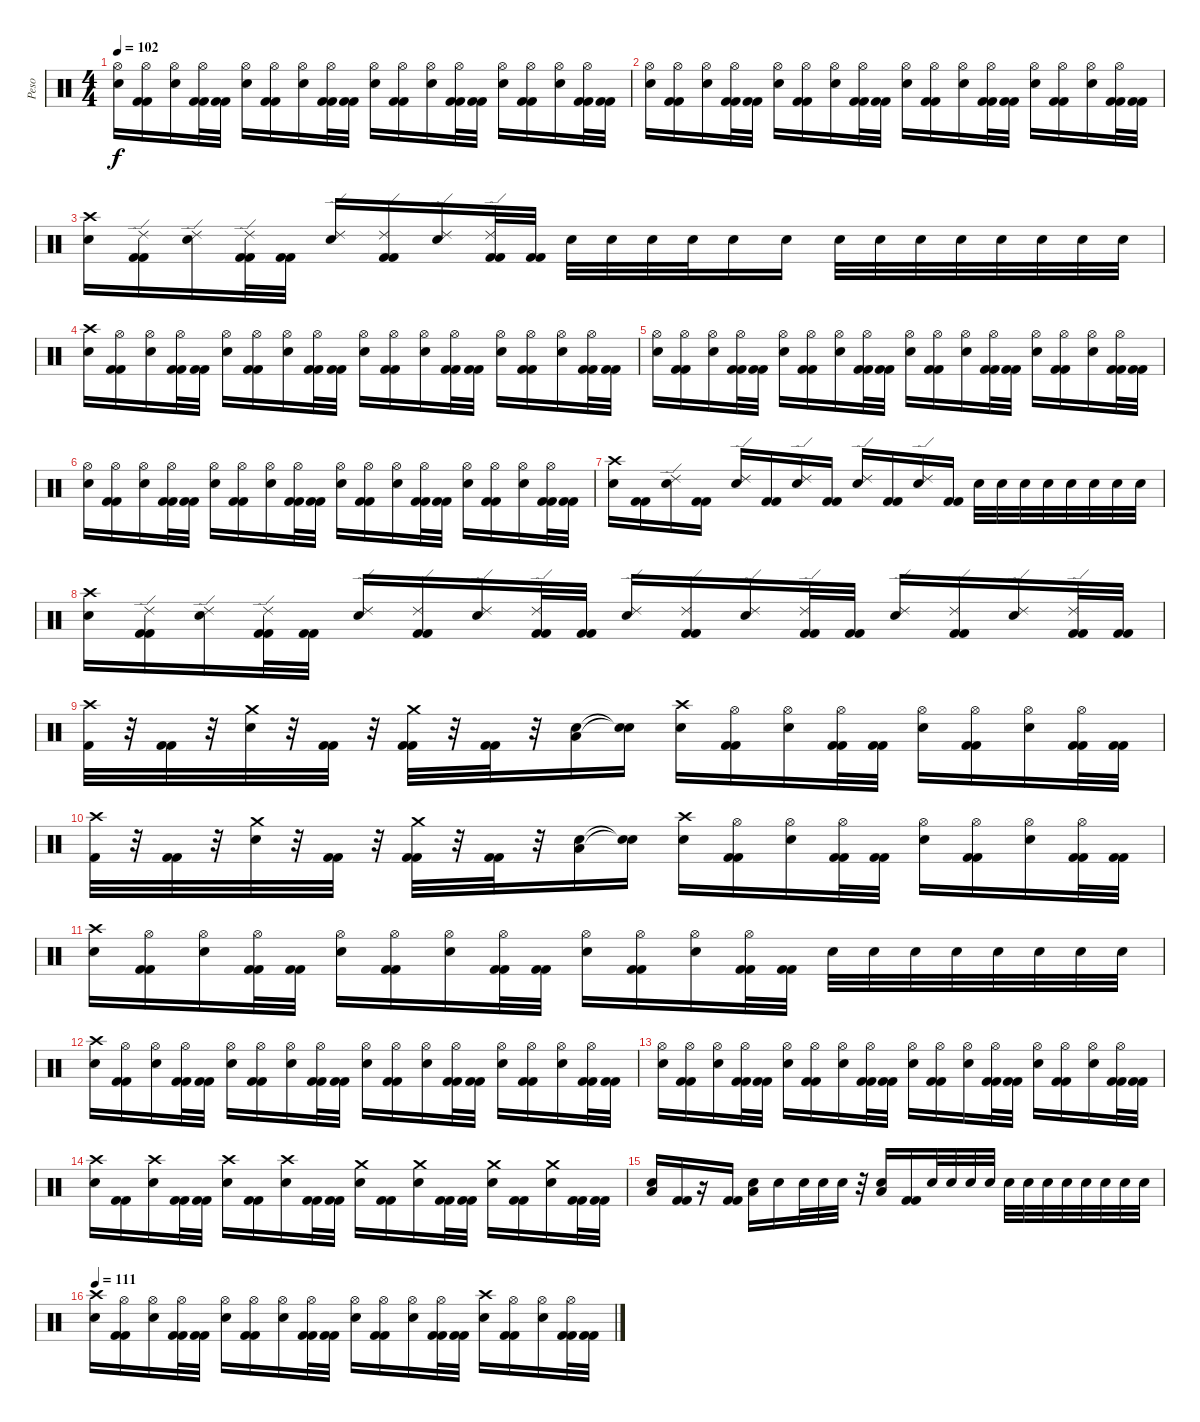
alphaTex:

\track ("Peso" "Peso") {instrument percussion}
\staff {score}
\articulation defaults
\ts (4 4)
\tempo 102
\clef neutral
\ks c
("Hi-Hat (open)" "Snare (hit) 2").16{dy f} ("Hi-Hat (open)" "Kick (hit) 2" "Kick (hit) 2").16 ("Hi-Hat (open)" "Snare (hit) 2").16 ("Hi-Hat (open)" "Kick (hit) 2" "Kick (hit) 2").32 ("Kick (hit) 2" "Kick (hit) 2").32 ("Hi-Hat (open)" "Snare (hit) 2").16 ("Hi-Hat (open)" "Kick (hit) 2" "Kick (hit) 2").16 ("Hi-Hat (open)" "Snare (hit) 2").16 ("Hi-Hat (open)" "Kick (hit) 2" "Kick (hit) 2").32 ("Kick (hit) 2" "Kick (hit) 2").32 ("Hi-Hat (open)" "Snare (hit) 2").16 ("Hi-Hat (open)" "Kick (hit) 2" "Kick (hit) 2").16 ("Hi-Hat (open)" "Snare (hit) 2").16 ("Hi-Hat (open)" "Kick (hit) 2" "Kick (hit) 2").32 ("Kick (hit) 2" "Kick (hit) 2").32 ("Hi-Hat (open)" "Snare (hit) 2").16 ("Hi-Hat (open)" "Kick (hit) 2" "Kick (hit) 2").16 ("Hi-Hat (open)" "Snare (hit) 2").16 ("Hi-Hat (open)" "Kick (hit) 2" "Kick (hit) 2").32 ("Kick (hit) 2" "Kick (hit) 2").32 |
("Hi-Hat (open)" "Snare (hit) 2").16 ("Hi-Hat (open)" "Kick (hit) 2" "Kick (hit) 2").16 ("Hi-Hat (open)" "Snare (hit) 2").16 ("Hi-Hat (open)" "Kick (hit) 2" "Kick (hit) 2").32 ("Kick (hit) 2" "Kick (hit) 2").32 ("Hi-Hat (open)" "Snare (hit) 2").16 ("Hi-Hat (open)" "Kick (hit) 2" "Kick (hit) 2").16 ("Hi-Hat (open)" "Snare (hit) 2").16 ("Hi-Hat (open)" "Kick (hit) 2" "Kick (hit) 2").32 ("Kick (hit) 2" "Kick (hit) 2").32 ("Hi-Hat (open)" "Snare (hit) 2").16 ("Hi-Hat (open)" "Kick (hit) 2" "Kick (hit) 2").16 ("Hi-Hat (open)" "Snare (hit) 2").16 ("Hi-Hat (open)" "Kick (hit) 2" "Kick (hit) 2").32 ("Kick (hit) 2" "Kick (hit) 2").32 ("Hi-Hat (open)" "Snare (hit) 2").16 ("Hi-Hat (open)" "Kick (hit) 2" "Kick (hit) 2").16 ("Hi-Hat (open)" "Snare (hit) 2").16 ("Hi-Hat (open)" "Kick (hit) 2" "Kick (hit) 2").32 ("Kick (hit) 2" "Kick (hit) 2").32 |
("Crash high (hit)" "Snare (hit) 2").16 ("Ride (edge) 2" "Kick (hit) 2" "Kick (hit) 2").16 ("Ride (edge) 2" "Snare (hit) 2").16 ("Ride (edge) 2" "Kick (hit) 2" "Kick (hit) 2").32 ("Kick (hit) 2" "Kick (hit) 2").32 ("Ride (edge) 2" "Snare (hit) 2").16 ("Ride (edge) 2" "Kick (hit) 2" "Kick (hit) 2").16 ("Ride (edge) 2" "Snare (hit) 2").16 ("Ride (edge) 2" "Kick (hit) 2" "Kick (hit) 2").32 ("Kick (hit) 2" "Kick (hit) 2").32 "Snare (hit) 2".32 "Snare (hit) 2".32 "Snare (hit) 2".32 "Snare (hit) 2".32 "Snare (hit) 2".16 "Snare (hit) 2".16 "Snare (hit) 2".32 "Snare (hit) 2".32 "Snare (hit) 2".32 "Snare (hit) 2".32 "Snare (hit) 2".32 "Snare (hit) 2".32 "Snare (hit) 2".32 "Snare (hit) 2".32 |
("Crash high (hit)" "Snare (hit) 2").16 ("Hi-Hat (open)" "Kick (hit) 2" "Kick (hit) 2").16 ("Hi-Hat (open)" "Snare (hit) 2").16 ("Hi-Hat (open)" "Kick (hit) 2" "Kick (hit) 2").32 ("Kick (hit) 2" "Kick (hit) 2").32 ("Hi-Hat (open)" "Snare (hit) 2").16 ("Hi-Hat (open)" "Kick (hit) 2" "Kick (hit) 2").16 ("Hi-Hat (open)" "Snare (hit) 2").16 ("Hi-Hat (open)" "Kick (hit) 2" "Kick (hit) 2").32 ("Kick (hit) 2" "Kick (hit) 2").32 ("Hi-Hat (open)" "Snare (hit) 2").16 ("Hi-Hat (open)" "Kick (hit) 2" "Kick (hit) 2").16 ("Hi-Hat (open)" "Snare (hit) 2").16 ("Hi-Hat (open)" "Kick (hit) 2" "Kick (hit) 2").32 ("Kick (hit) 2" "Kick (hit) 2").32 ("Hi-Hat (open)" "Snare (hit) 2").16 ("Hi-Hat (open)" "Kick (hit) 2" "Kick (hit) 2").16 ("Hi-Hat (open)" "Snare (hit) 2").16 ("Hi-Hat (open)" "Kick (hit) 2" "Kick (hit) 2").32 ("Kick (hit) 2" "Kick (hit) 2").32 |
("Hi-Hat (open)" "Snare (hit) 2").16 ("Hi-Hat (open)" "Kick (hit) 2" "Kick (hit) 2").16 ("Hi-Hat (open)" "Snare (hit) 2").16 ("Hi-Hat (open)" "Kick (hit) 2" "Kick (hit) 2").32 ("Kick (hit) 2" "Kick (hit) 2").32 ("Hi-Hat (open)" "Snare (hit) 2").16 ("Hi-Hat (open)" "Kick (hit) 2" "Kick (hit) 2").16 ("Hi-Hat (open)" "Snare (hit) 2").16 ("Hi-Hat (open)" "Kick (hit) 2" "Kick (hit) 2").32 ("Kick (hit) 2" "Kick (hit) 2").32 ("Hi-Hat (open)" "Snare (hit) 2").16 ("Hi-Hat (open)" "Kick (hit) 2" "Kick (hit) 2").16 ("Hi-Hat (open)" "Snare (hit) 2").16 ("Hi-Hat (open)" "Kick (hit) 2" "Kick (hit) 2").32 ("Kick (hit) 2" "Kick (hit) 2").32 ("Hi-Hat (open)" "Snare (hit) 2").16 ("Hi-Hat (open)" "Kick (hit) 2" "Kick (hit) 2").16 ("Hi-Hat (open)" "Snare (hit) 2").16 ("Hi-Hat (open)" "Kick (hit) 2" "Kick (hit) 2").32 ("Kick (hit) 2" "Kick (hit) 2").32 |
("Hi-Hat (open)" "Snare (hit) 2").16 ("Hi-Hat (open)" "Kick (hit) 2" "Kick (hit) 2").16 ("Hi-Hat (open)" "Snare (hit) 2").16 ("Hi-Hat (open)" "Kick (hit) 2" "Kick (hit) 2").32 ("Kick (hit) 2" "Kick (hit) 2").32 ("Hi-Hat (open)" "Snare (hit) 2").16 ("Hi-Hat (open)" "Kick (hit) 2" "Kick (hit) 2").16 ("Hi-Hat (open)" "Snare (hit) 2").16 ("Hi-Hat (open)" "Kick (hit) 2" "Kick (hit) 2").32 ("Kick (hit) 2" "Kick (hit) 2").32 ("Hi-Hat (open)" "Snare (hit) 2").16 ("Hi-Hat (open)" "Kick (hit) 2" "Kick (hit) 2").16 ("Hi-Hat (open)" "Snare (hit) 2").16 ("Hi-Hat (open)" "Kick (hit) 2" "Kick (hit) 2").32 ("Kick (hit) 2" "Kick (hit) 2").32 ("Hi-Hat (open)" "Snare (hit) 2").16 ("Hi-Hat (open)" "Kick (hit) 2" "Kick (hit) 2").16 ("Hi-Hat (open)" "Snare (hit) 2").16 ("Hi-Hat (open)" "Kick (hit) 2" "Kick (hit) 2").32 ("Kick (hit) 2" "Kick (hit) 2").32 |
("Crash high (hit)" "Snare (hit) 2").16 ("Kick (hit) 2" "Kick (hit) 2").16 ("Ride (edge) 2" "Snare (hit) 2").16 ("Kick (hit) 2" "Kick (hit) 2").16 ("Ride (edge) 2" "Snare (hit) 2").16 ("Kick (hit) 2" "Kick (hit) 2").16 ("Ride (edge) 2" "Snare (hit) 2").16 ("Kick (hit) 2" "Kick (hit) 2").16 ("Ride (edge) 2" "Snare (hit) 2").16 ("Kick (hit) 2" "Kick (hit) 2").16 ("Ride (edge) 2" "Snare (hit) 2").16 ("Kick (hit) 2" "Kick (hit) 2").16 "Snare (hit) 2".32 "Snare (hit) 2".32 "Snare (hit) 2".32 "Snare (hit) 2".32 "Snare (hit) 2".32 "Snare (hit) 2".32 "Snare (hit) 2".32 "Snare (hit) 2".32 |
("Crash high (hit)" "Snare (hit) 2").16 ("Ride (edge) 2" "Kick (hit) 2" "Kick (hit) 2").16 ("Ride (edge) 2" "Snare (hit) 2").16 ("Ride (edge) 2" "Kick (hit) 2" "Kick (hit) 2").32 ("Kick (hit) 2" "Kick (hit) 2").32 ("Ride (edge) 2" "Snare (hit) 2").16 ("Ride (edge) 2" "Kick (hit) 2" "Kick (hit) 2").16 ("Ride (edge) 2" "Snare (hit) 2").16 ("Ride (edge) 2" "Kick (hit) 2" "Kick (hit) 2").32 ("Kick (hit) 2" "Kick (hit) 2").32 ("Ride (edge) 2" "Snare (hit) 2").16 ("Ride (edge) 2" "Kick (hit) 2" "Kick (hit) 2").16 ("Ride (edge) 2" "Snare (hit) 2").16 ("Ride (edge) 2" "Kick (hit) 2" "Kick (hit) 2").32 ("Kick (hit) 2" "Kick (hit) 2").32 ("Ride (edge) 2" "Snare (hit) 2").16 ("Ride (edge) 2" "Kick (hit) 2" "Kick (hit) 2").16 ("Ride (edge) 2" "Snare (hit) 2").16 ("Ride (edge) 2" "Kick (hit) 2" "Kick (hit) 2").32 ("Kick (hit) 2" "Kick (hit) 2").32 |
("Crash high (hit)" "Kick (hit) 2").32 r.32 ("Kick (hit) 2" "Kick (hit) 2").32 r.32 ("Crash medium (hit)" "Snare (hit) 2").32 r.32 ("Kick (hit) 2" "Kick (hit) 2").32 r.32 ("Crash medium (hit)" "Kick (hit) 2" "Kick (hit) 2").32 r.32 ("Kick (hit) 2" "Kick (hit) 2").32 r.32 ("Low Floor Tom (hit)" "Snare (hit) 2").16 ("Snare (hit)"{t} "Snare (hit)"{t}).16 ("Crash high (hit)" "Snare (hit) 2").16 ("Hi-Hat (open)" "Kick (hit) 2" "Kick (hit) 2").16 ("Hi-Hat (open)" "Snare (hit) 2").16 ("Hi-Hat (open)" "Kick (hit) 2" "Kick (hit) 2").32 ("Kick (hit) 2" "Kick (hit) 2").32 ("Hi-Hat (open)" "Snare (hit) 2").16 ("Hi-Hat (open)" "Kick (hit) 2" "Kick (hit) 2").16 ("Hi-Hat (open)" "Snare (hit) 2").16 ("Hi-Hat (open)" "Kick (hit) 2" "Kick (hit) 2").32 ("Kick (hit) 2" "Kick (hit) 2").32 |
("Crash high (hit)" "Kick (hit) 2").32 r.32 ("Kick (hit) 2" "Kick (hit) 2").32 r.32 ("Crash medium (hit)" "Snare (hit) 2").32 r.32 ("Kick (hit) 2" "Kick (hit) 2").32 r.32 ("Crash medium (hit)" "Kick (hit) 2" "Kick (hit) 2").32 r.32 ("Kick (hit) 2" "Kick (hit) 2").32 r.32 ("Low Floor Tom (hit)" "Snare (hit) 2").16 ("Snare (hit)"{t} "Snare (hit)"{t}).16 ("Crash high (hit)" "Snare (hit) 2").16 ("Hi-Hat (open)" "Kick (hit) 2" "Kick (hit) 2").16 ("Hi-Hat (open)" "Snare (hit) 2").16 ("Hi-Hat (open)" "Kick (hit) 2" "Kick (hit) 2").32 ("Kick (hit) 2" "Kick (hit) 2").32 ("Hi-Hat (open)" "Snare (hit) 2").16 ("Hi-Hat (open)" "Kick (hit) 2" "Kick (hit) 2").16 ("Hi-Hat (open)" "Snare (hit) 2").16 ("Hi-Hat (open)" "Kick (hit) 2" "Kick (hit) 2").32 ("Kick (hit) 2" "Kick (hit) 2").32 |
("Crash high (hit)" "Snare (hit) 2").16 ("Hi-Hat (open)" "Kick (hit) 2" "Kick (hit) 2").16 ("Hi-Hat (open)" "Snare (hit) 2").16 ("Hi-Hat (open)" "Kick (hit) 2" "Kick (hit) 2").32 ("Kick (hit) 2" "Kick (hit) 2").32 ("Hi-Hat (open)" "Snare (hit) 2").16 ("Hi-Hat (open)" "Kick (hit) 2" "Kick (hit) 2").16 ("Hi-Hat (open)" "Snare (hit) 2").16 ("Hi-Hat (open)" "Kick (hit) 2" "Kick (hit) 2").32 ("Kick (hit) 2" "Kick (hit) 2").32 ("Hi-Hat (open)" "Snare (hit) 2").16 ("Hi-Hat (open)" "Kick (hit) 2" "Kick (hit) 2").16 ("Hi-Hat (open)" "Snare (hit) 2").16 ("Hi-Hat (open)" "Kick (hit) 2" "Kick (hit) 2").32 ("Kick (hit) 2" "Kick (hit) 2").32 "Snare (hit) 2".32 "Snare (hit) 2".32 "Snare (hit) 2".32 "Snare (hit) 2".32 "Snare (hit) 2".32 "Snare (hit) 2".32 "Snare (hit) 2".32 "Snare (hit) 2".32 |
("Crash high (hit)" "Snare (hit) 2").16 ("Hi-Hat (open)" "Kick (hit) 2" "Kick (hit) 2").16 ("Hi-Hat (open)" "Snare (hit) 2").16 ("Hi-Hat (open)" "Kick (hit) 2" "Kick (hit) 2").32 ("Kick (hit) 2" "Kick (hit) 2").32 ("Hi-Hat (open)" "Snare (hit) 2").16 ("Hi-Hat (open)" "Kick (hit) 2" "Kick (hit) 2").16 ("Hi-Hat (open)" "Snare (hit) 2").16 ("Hi-Hat (open)" "Kick (hit) 2" "Kick (hit) 2").32 ("Kick (hit) 2" "Kick (hit) 2").32 ("Hi-Hat (open)" "Snare (hit) 2").16 ("Hi-Hat (open)" "Kick (hit) 2" "Kick (hit) 2").16 ("Hi-Hat (open)" "Snare (hit) 2").16 ("Hi-Hat (open)" "Kick (hit) 2" "Kick (hit) 2").32 ("Kick (hit) 2" "Kick (hit) 2").32 ("Hi-Hat (open)" "Snare (hit) 2").16 ("Hi-Hat (open)" "Kick (hit) 2" "Kick (hit) 2").16 ("Hi-Hat (open)" "Snare (hit) 2").16 ("Hi-Hat (open)" "Kick (hit) 2" "Kick (hit) 2").32 ("Kick (hit) 2" "Kick (hit) 2").32 |
("Hi-Hat (open)" "Snare (hit) 2").16 ("Hi-Hat (open)" "Kick (hit) 2" "Kick (hit) 2").16 ("Hi-Hat (open)" "Snare (hit) 2").16 ("Hi-Hat (open)" "Kick (hit) 2" "Kick (hit) 2").32 ("Kick (hit) 2" "Kick (hit) 2").32 ("Hi-Hat (open)" "Snare (hit) 2").16 ("Hi-Hat (open)" "Kick (hit) 2" "Kick (hit) 2").16 ("Hi-Hat (open)" "Snare (hit) 2").16 ("Hi-Hat (open)" "Kick (hit) 2" "Kick (hit) 2").32 ("Kick (hit) 2" "Kick (hit) 2").32 ("Hi-Hat (open)" "Snare (hit) 2").16 ("Hi-Hat (open)" "Kick (hit) 2" "Kick (hit) 2").16 ("Hi-Hat (open)" "Snare (hit) 2").16 ("Hi-Hat (open)" "Kick (hit) 2" "Kick (hit) 2").32 ("Kick (hit) 2" "Kick (hit) 2").32 ("Hi-Hat (open)" "Snare (hit) 2").16 ("Hi-Hat (open)" "Kick (hit) 2" "Kick (hit) 2").16 ("Hi-Hat (open)" "Snare (hit) 2").16 ("Hi-Hat (open)" "Kick (hit) 2" "Kick (hit) 2").32 ("Kick (hit) 2" "Kick (hit) 2").32 |
("Crash high (hit)" "Snare (hit) 2").16 ("Kick (hit) 2" "Kick (hit) 2").16 ("Crash high (hit)" "Snare (hit) 2").16 ("Kick (hit) 2" "Kick (hit) 2").32 ("Kick (hit) 2" "Kick (hit) 2").32 ("Crash high (hit)" "Snare (hit) 2").16 ("Kick (hit) 2" "Kick (hit) 2").16 ("Crash high (hit)" "Snare (hit) 2").16 ("Kick (hit) 2" "Kick (hit) 2").32 ("Kick (hit) 2" "Kick (hit) 2").32 ("Crash medium (hit)" "Snare (hit) 2").16 ("Kick (hit) 2" "Kick (hit) 2").16 ("Crash medium (hit)" "Snare (hit) 2").16 ("Kick (hit) 2" "Kick (hit) 2").32 ("Kick (hit) 2" "Kick (hit) 2").32 ("Crash medium (hit)" "Snare (hit) 2").16 ("Kick (hit) 2" "Kick (hit) 2").16 ("Crash medium (hit)" "Snare (hit) 2").16 ("Kick (hit) 2" "Kick (hit) 2").32 ("Kick (hit) 2" "Kick (hit) 2").32 |
("Low Floor Tom (hit)" "Snare (hit) 2").16 ("Kick (hit) 2" "Kick (hit) 2").16 r.16 ("Kick (hit) 2" "Kick (hit) 2").16 ("Low Floor Tom (hit)" "Snare (hit) 2").16 "Snare (hit) 2".16 "Snare (hit) 2".32 "Snare (hit) 2".32 "Snare (hit) 2".32 r.32 ("Low Floor Tom (hit)" "Snare (hit) 2").16 ("Kick (hit) 2" "Kick (hit) 2").16 "Snare (hit) 2".32 "Snare (hit) 2".32 "Snare (hit) 2".32 "Snare (hit) 2".32 "Snare (hit) 2".32 "Snare (hit) 2".32 "Snare (hit) 2".32 "Snare (hit) 2".32 "Snare (hit) 2".32 "Snare (hit) 2".32 "Snare (hit) 2".32 "Snare (hit) 2".32 |
\tempo 111
("Crash high (hit)" "Snare (hit) 2").16 ("Hi-Hat (open)" "Kick (hit) 2" "Kick (hit) 2").16 ("Hi-Hat (open)" "Snare (hit) 2").16 ("Hi-Hat (open)" "Kick (hit) 2" "Kick (hit) 2").32 ("Kick (hit) 2" "Kick (hit) 2").32 ("Hi-Hat (open)" "Snare (hit) 2").16 ("Hi-Hat (open)" "Kick (hit) 2" "Kick (hit) 2").16 ("Hi-Hat (open)" "Snare (hit) 2").16 ("Hi-Hat (open)" "Kick (hit) 2" "Kick (hit) 2").32 ("Kick (hit) 2" "Kick (hit) 2").32 ("Hi-Hat (open)" "Snare (hit) 2").16 ("Hi-Hat (open)" "Kick (hit) 2" "Kick (hit) 2").16 ("Hi-Hat (open)" "Snare (hit) 2").16 ("Hi-Hat (open)" "Kick (hit) 2" "Kick (hit) 2").32 ("Kick (hit) 2" "Kick (hit) 2").32 ("Crash high (hit)" "Snare (hit) 2").16 ("Hi-Hat (open)" "Kick (hit) 2" "Kick (hit) 2").16 ("Hi-Hat (open)" "Snare (hit) 2").16 ("Hi-Hat (open)" "Kick (hit) 2" "Kick (hit) 2").32 ("Kick (hit) 2" "Kick (hit) 2").32
